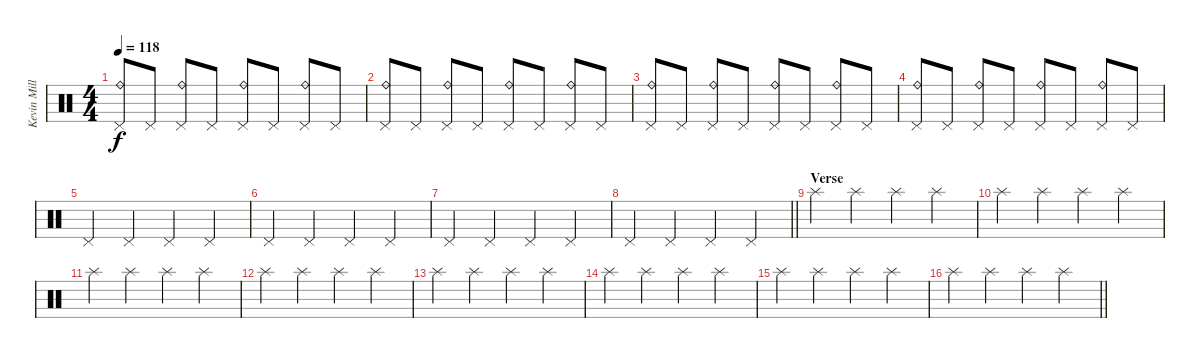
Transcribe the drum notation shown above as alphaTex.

\track ("Kevin Miller (Drums)" "Kevin Mill") {instrument percussion}
\staff {score}
\articulation defaults
\ts (4 4)
\tempo 118
\clef neutral
\ks c
("Pedal Hi-Hat (hit)" "Ride (bell)").8{dy f} "Pedal Hi-Hat (hit)".8 ("Pedal Hi-Hat (hit)" "Ride (bell)").8 "Pedal Hi-Hat (hit)".8 ("Pedal Hi-Hat (hit)" "Ride (bell)").8 "Pedal Hi-Hat (hit)".8 ("Pedal Hi-Hat (hit)" "Ride (bell)").8 "Pedal Hi-Hat (hit)".8 |
("Pedal Hi-Hat (hit)" "Ride (bell)").8 "Pedal Hi-Hat (hit)".8 ("Pedal Hi-Hat (hit)" "Ride (bell)").8 "Pedal Hi-Hat (hit)".8 ("Pedal Hi-Hat (hit)" "Ride (bell)").8 "Pedal Hi-Hat (hit)".8 ("Pedal Hi-Hat (hit)" "Ride (bell)").8 "Pedal Hi-Hat (hit)".8 |
("Pedal Hi-Hat (hit)" "Ride (bell)").8 "Pedal Hi-Hat (hit)".8 ("Pedal Hi-Hat (hit)" "Ride (bell)").8 "Pedal Hi-Hat (hit)".8 ("Pedal Hi-Hat (hit)" "Ride (bell)").8 "Pedal Hi-Hat (hit)".8 ("Pedal Hi-Hat (hit)" "Ride (bell)").8 "Pedal Hi-Hat (hit)".8 |
("Pedal Hi-Hat (hit)" "Ride (bell)").8 "Pedal Hi-Hat (hit)".8 ("Pedal Hi-Hat (hit)" "Ride (bell)").8 "Pedal Hi-Hat (hit)".8 ("Pedal Hi-Hat (hit)" "Ride (bell)").8 "Pedal Hi-Hat (hit)".8 ("Pedal Hi-Hat (hit)" "Ride (bell)").8 "Pedal Hi-Hat (hit)".8 |
"Pedal Hi-Hat (hit)".4 "Pedal Hi-Hat (hit)".4 "Pedal Hi-Hat (hit)".4 "Pedal Hi-Hat (hit)".4 |
"Pedal Hi-Hat (hit)".4 "Pedal Hi-Hat (hit)".4 "Pedal Hi-Hat (hit)".4 "Pedal Hi-Hat (hit)".4 |
"Pedal Hi-Hat (hit)".4 "Pedal Hi-Hat (hit)".4 "Pedal Hi-Hat (hit)".4 "Pedal Hi-Hat (hit)".4 |
\barLineRight lightlight "Pedal Hi-Hat (hit)".4 "Pedal Hi-Hat (hit)".4 "Pedal Hi-Hat (hit)".4 "Pedal Hi-Hat (hit)".4
|
\section ("" "Verse")
"Splash (hit)".4 "Splash (hit)".4 "Splash (hit)".4 "Splash (hit)".4 |
"Splash (hit)".4 "Splash (hit)".4 "Splash (hit)".4 "Splash (hit)".4 |
"Splash (hit)".4 "Splash (hit)".4 "Splash (hit)".4 "Splash (hit)".4 |
"Splash (hit)".4 "Splash (hit)".4 "Splash (hit)".4 "Splash (hit)".4 |
"Splash (hit)".4 "Splash (hit)".4 "Splash (hit)".4 "Splash (hit)".4 |
"Splash (hit)".4 "Splash (hit)".4 "Splash (hit)".4 "Splash (hit)".4 |
"Splash (hit)".4 "Splash (hit)".4 "Splash (hit)".4 "Splash (hit)".4 |
\barLineRight lightlight "Splash (hit)".4 "Splash (hit)".4 "Splash (hit)".4 "Splash (hit)".4
